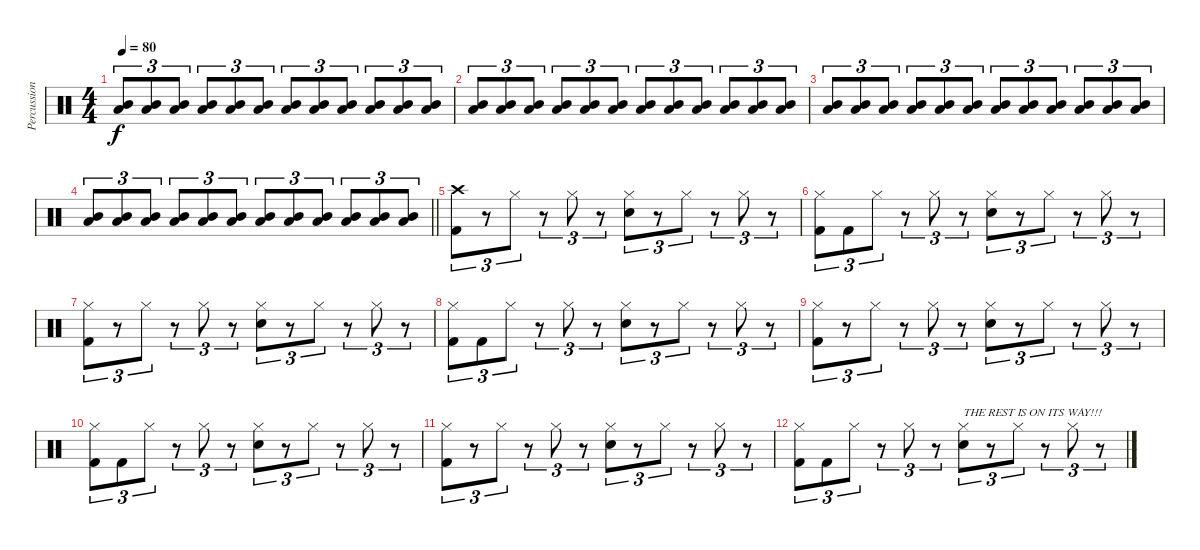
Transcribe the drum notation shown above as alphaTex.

\track ("Percussion" "Percussion") {instrument percussion}
\staff {score}
\articulation defaults
\ts (4 4)
\tempo 80
\clef neutral
\ks c
("Mid Tom (hit)" "Low Floor Tom (hit)").8{tu (3 2) dy f volume 8} ("Mid Tom (hit)" "Low Floor Tom (hit)").8{tu (3 2)} ("Mid Tom (hit)" "Low Floor Tom (hit)").8{tu (3 2)} ("Mid Tom (hit)" "Low Floor Tom (hit)").8{tu (3 2)} ("Mid Tom (hit)" "Low Floor Tom (hit)").8{tu (3 2)} ("Mid Tom (hit)" "Low Floor Tom (hit)").8{tu (3 2)} ("Mid Tom (hit)" "Low Floor Tom (hit)").8{tu (3 2) volume 9} ("Mid Tom (hit)" "Low Floor Tom (hit)").8{tu (3 2)} ("Mid Tom (hit)" "Low Floor Tom (hit)").8{tu (3 2)} ("Mid Tom (hit)" "Low Floor Tom (hit)").8{tu (3 2)} ("Mid Tom (hit)" "Low Floor Tom (hit)").8{tu (3 2)} ("Mid Tom (hit)" "Low Floor Tom (hit)").8{tu (3 2)} |
("Mid Tom (hit)" "Low Floor Tom (hit)").8{tu (3 2) volume 10} ("Mid Tom (hit)" "Low Floor Tom (hit)").8{tu (3 2)} ("Mid Tom (hit)" "Low Floor Tom (hit)").8{tu (3 2)} ("Mid Tom (hit)" "Low Floor Tom (hit)").8{tu (3 2)} ("Mid Tom (hit)" "Low Floor Tom (hit)").8{tu (3 2)} ("Mid Tom (hit)" "Low Floor Tom (hit)").8{tu (3 2)} ("Mid Tom (hit)" "Low Floor Tom (hit)").8{tu (3 2) volume 11} ("Mid Tom (hit)" "Low Floor Tom (hit)").8{tu (3 2)} ("Mid Tom (hit)" "Low Floor Tom (hit)").8{tu (3 2)} ("Mid Tom (hit)" "Low Floor Tom (hit)").8{tu (3 2)} ("Mid Tom (hit)" "Low Floor Tom (hit)").8{tu (3 2)} ("Mid Tom (hit)" "Low Floor Tom (hit)").8{tu (3 2)} |
("Mid Tom (hit)" "Low Floor Tom (hit)").8{tu (3 2) volume 12} ("Mid Tom (hit)" "Low Floor Tom (hit)").8{tu (3 2)} ("Mid Tom (hit)" "Low Floor Tom (hit)").8{tu (3 2)} ("Mid Tom (hit)" "Low Floor Tom (hit)").8{tu (3 2)} ("Mid Tom (hit)" "Low Floor Tom (hit)").8{tu (3 2)} ("Mid Tom (hit)" "Low Floor Tom (hit)").8{tu (3 2)} ("Mid Tom (hit)" "Low Floor Tom (hit)").8{tu (3 2) volume 13} ("Mid Tom (hit)" "Low Floor Tom (hit)").8{tu (3 2)} ("Mid Tom (hit)" "Low Floor Tom (hit)").8{tu (3 2)} ("Mid Tom (hit)" "Low Floor Tom (hit)").8{tu (3 2)} ("Mid Tom (hit)" "Low Floor Tom (hit)").8{tu (3 2)} ("Mid Tom (hit)" "Low Floor Tom (hit)").8{tu (3 2)} |
\barLineRight lightlight
("Mid Tom (hit)" "Low Floor Tom (hit)").8{tu (3 2) volume 14} ("Mid Tom (hit)" "Low Floor Tom (hit)").8{tu (3 2)} ("Mid Tom (hit)" "Low Floor Tom (hit)").8{tu (3 2)} ("Mid Tom (hit)" "Low Floor Tom (hit)").8{tu (3 2)} ("Mid Tom (hit)" "Low Floor Tom (hit)").8{tu (3 2)} ("Mid Tom (hit)" "Low Floor Tom (hit)").8{tu (3 2)} ("Mid Tom (hit)" "Low Floor Tom (hit)").8{tu (3 2) volume 15} ("Mid Tom (hit)" "Low Floor Tom (hit)").8{tu (3 2)} ("Mid Tom (hit)" "Low Floor Tom (hit)").8{tu (3 2)} ("Mid Tom (hit)" "Low Floor Tom (hit)").8{tu (3 2)} ("Mid Tom (hit)" "Low Floor Tom (hit)").8{tu (3 2)} ("Mid Tom (hit)" "Low Floor Tom (hit)").8{tu (3 2)} |
\section ("" "")
("Crash high (hit)" "Kick (hit) 2").8{tu (3 2)} r.8{tu (3 2)} "Hi-Hat (closed)".8{tu (3 2)} r.8{tu (3 2)} "Hi-Hat (closed)".8{tu (3 2)} r.8{tu (3 2)} ("Hi-Hat (closed)" "Electric Snare (hit)").8{tu (3 2)} r.8{tu (3 2)} "Hi-Hat (closed)".8{tu (3 2)} r.8{tu (3 2)} "Hi-Hat (closed)".8{tu (3 2)} r.8{tu (3 2)} |
("Hi-Hat (closed)" "Kick (hit) 2").8{tu (3 2)} "Kick (hit) 2".8{tu (3 2)} "Hi-Hat (closed)".8{tu (3 2)} r.8{tu (3 2)} "Hi-Hat (closed)".8{tu (3 2)} r.8{tu (3 2)} ("Hi-Hat (closed)" "Electric Snare (hit)").8{tu (3 2)} r.8{tu (3 2)} "Hi-Hat (closed)".8{tu (3 2)} r.8{tu (3 2)} "Hi-Hat (closed)".8{tu (3 2)} r.8{tu (3 2)} |
("Hi-Hat (closed)" "Kick (hit) 2").8{tu (3 2)} r.8{tu (3 2)} "Hi-Hat (closed)".8{tu (3 2)} r.8{tu (3 2)} "Hi-Hat (closed)".8{tu (3 2)} r.8{tu (3 2)} ("Hi-Hat (closed)" "Electric Snare (hit)").8{tu (3 2)} r.8{tu (3 2)} "Hi-Hat (closed)".8{tu (3 2)} r.8{tu (3 2)} "Hi-Hat (closed)".8{tu (3 2)} r.8{tu (3 2)} |
("Hi-Hat (closed)" "Kick (hit) 2").8{tu (3 2)} "Kick (hit) 2".8{tu (3 2)} "Hi-Hat (closed)".8{tu (3 2)} r.8{tu (3 2)} "Hi-Hat (closed)".8{tu (3 2)} r.8{tu (3 2)} ("Hi-Hat (closed)" "Electric Snare (hit)").8{tu (3 2)} r.8{tu (3 2)} "Hi-Hat (closed)".8{tu (3 2)} r.8{tu (3 2)} "Hi-Hat (closed)".8{tu (3 2)} r.8{tu (3 2)} |
("Hi-Hat (closed)" "Kick (hit) 2").8{tu (3 2)} r.8{tu (3 2)} "Hi-Hat (closed)".8{tu (3 2)} r.8{tu (3 2)} "Hi-Hat (closed)".8{tu (3 2)} r.8{tu (3 2)} ("Hi-Hat (closed)" "Electric Snare (hit)").8{tu (3 2)} r.8{tu (3 2)} "Hi-Hat (closed)".8{tu (3 2)} r.8{tu (3 2)} "Hi-Hat (closed)".8{tu (3 2)} r.8{tu (3 2)} |
("Hi-Hat (closed)" "Kick (hit) 2").8{tu (3 2)} "Kick (hit) 2".8{tu (3 2)} "Hi-Hat (closed)".8{tu (3 2)} r.8{tu (3 2)} "Hi-Hat (closed)".8{tu (3 2)} r.8{tu (3 2)} ("Hi-Hat (closed)" "Electric Snare (hit)").8{tu (3 2)} r.8{tu (3 2)} "Hi-Hat (closed)".8{tu (3 2)} r.8{tu (3 2)} "Hi-Hat (closed)".8{tu (3 2)} r.8{tu (3 2)} |
("Hi-Hat (closed)" "Kick (hit) 2").8{tu (3 2)} r.8{tu (3 2)} "Hi-Hat (closed)".8{tu (3 2)} r.8{tu (3 2)} "Hi-Hat (closed)".8{tu (3 2)} r.8{tu (3 2)} ("Hi-Hat (closed)" "Electric Snare (hit)").8{tu (3 2)} r.8{tu (3 2)} "Hi-Hat (closed)".8{tu (3 2)} r.8{tu (3 2)} "Hi-Hat (closed)".8{tu (3 2)} r.8{tu (3 2)} |
("Hi-Hat (closed)" "Kick (hit) 2").8{tu (3 2)} "Kick (hit) 2".8{tu (3 2)} "Hi-Hat (closed)".8{tu (3 2)} r.8{tu (3 2)} "Hi-Hat (closed)".8{tu (3 2)} r.8{tu (3 2)} ("Hi-Hat (closed)" "Electric Snare (hit)").8{tu (3 2) txt "THE REST IS ON ITS WAY!!!"} r.8{tu (3 2)} "Hi-Hat (closed)".8{tu (3 2)} r.8{tu (3 2)} "Hi-Hat (closed)".8{tu (3 2)} r.8{tu (3 2)}
